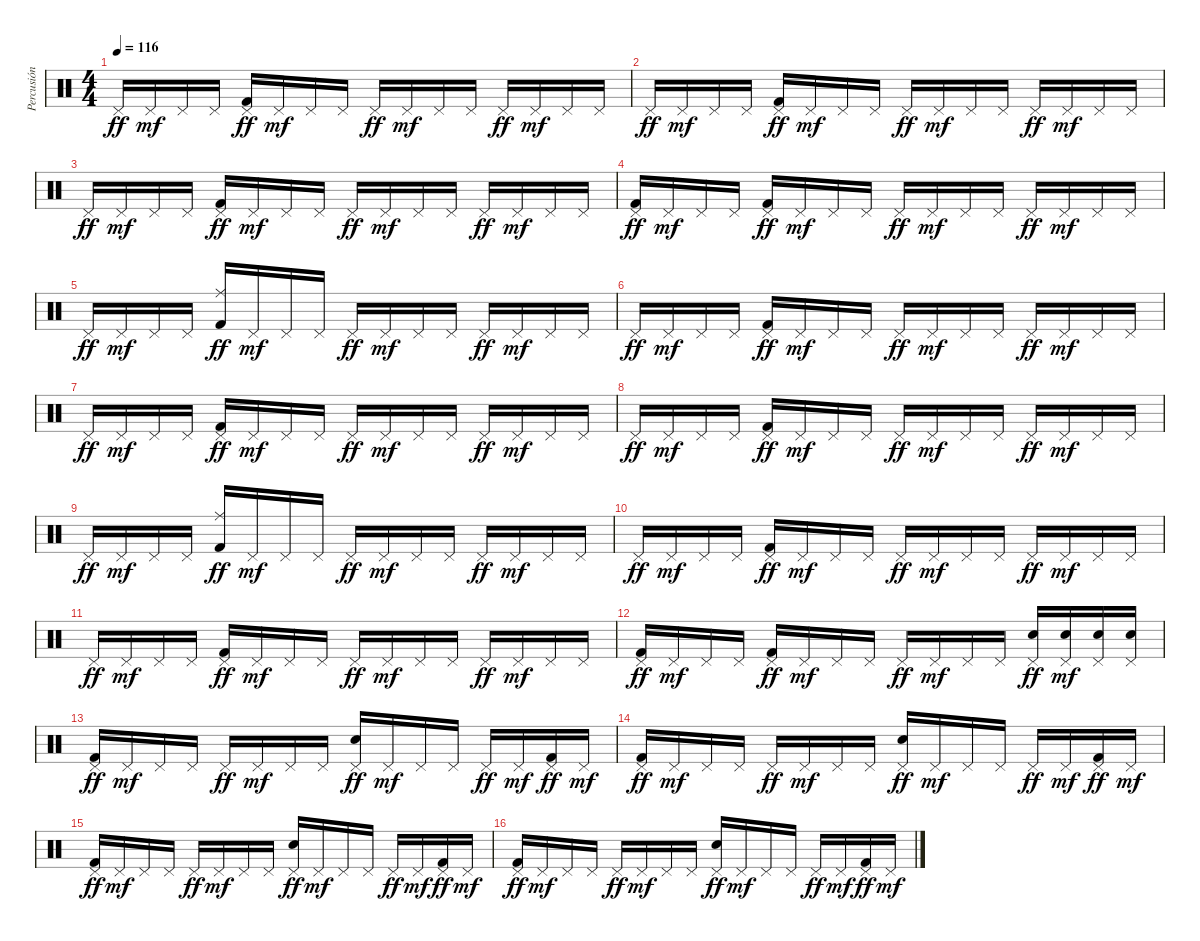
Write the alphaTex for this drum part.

\track ("Percusión" "Percusión") {instrument percussion}
\staff {score}
\articulation defaults
\ts (4 4)
\tempo 116
\clef neutral
\ks c "Pedal Hi-Hat (hit)".16{dy ff} "Pedal Hi-Hat (hit)".16{dy mf} "Pedal Hi-Hat (hit)".16 "Pedal Hi-Hat (hit)".16
("Pedal Hi-Hat (hit)" "Kick (hit) 2").16{dy ff} "Pedal Hi-Hat (hit)".16{dy mf} "Pedal Hi-Hat (hit)".16 "Pedal Hi-Hat (hit)".16 "Pedal Hi-Hat (hit)".16{dy ff} "Pedal Hi-Hat (hit)".16{dy mf} "Pedal Hi-Hat (hit)".16 "Pedal Hi-Hat (hit)".16 "Pedal Hi-Hat (hit)".16{dy ff} "Pedal Hi-Hat (hit)".16{dy mf} "Pedal Hi-Hat (hit)".16 "Pedal Hi-Hat (hit)".16 |
"Pedal Hi-Hat (hit)".16{dy ff} "Pedal Hi-Hat (hit)".16{dy mf} "Pedal Hi-Hat (hit)".16 "Pedal Hi-Hat (hit)".16 ("Pedal Hi-Hat (hit)" "Kick (hit) 2").16{dy ff} "Pedal Hi-Hat (hit)".16{dy mf} "Pedal Hi-Hat (hit)".16 "Pedal Hi-Hat (hit)".16 "Pedal Hi-Hat (hit)".16{dy ff} "Pedal Hi-Hat (hit)".16{dy mf} "Pedal Hi-Hat (hit)".16 "Pedal Hi-Hat (hit)".16 "Pedal Hi-Hat (hit)".16{dy ff} "Pedal Hi-Hat (hit)".16{dy mf} "Pedal Hi-Hat (hit)".16 "Pedal Hi-Hat (hit)".16 |
"Pedal Hi-Hat (hit)".16{dy ff} "Pedal Hi-Hat (hit)".16{dy mf} "Pedal Hi-Hat (hit)".16 "Pedal Hi-Hat (hit)".16 ("Pedal Hi-Hat (hit)" "Kick (hit) 2").16{dy ff} "Pedal Hi-Hat (hit)".16{dy mf} "Pedal Hi-Hat (hit)".16 "Pedal Hi-Hat (hit)".16 "Pedal Hi-Hat (hit)".16{dy ff} "Pedal Hi-Hat (hit)".16{dy mf} "Pedal Hi-Hat (hit)".16 "Pedal Hi-Hat (hit)".16 "Pedal Hi-Hat (hit)".16{dy ff} "Pedal Hi-Hat (hit)".16{dy mf} "Pedal Hi-Hat (hit)".16 "Pedal Hi-Hat (hit)".16 |
("Pedal Hi-Hat (hit)" "Kick (hit) 2").16{dy ff} "Pedal Hi-Hat (hit)".16{dy mf} "Pedal Hi-Hat (hit)".16 "Pedal Hi-Hat (hit)".16 ("Pedal Hi-Hat (hit)" "Kick (hit) 2").16{dy ff} "Pedal Hi-Hat (hit)".16{dy mf} "Pedal Hi-Hat (hit)".16 "Pedal Hi-Hat (hit)".16 "Pedal Hi-Hat (hit)".16{dy ff} "Pedal Hi-Hat (hit)".16{dy mf} "Pedal Hi-Hat (hit)".16 "Pedal Hi-Hat (hit)".16 "Pedal Hi-Hat (hit)".16{dy ff} "Pedal Hi-Hat (hit)".16{dy mf} "Pedal Hi-Hat (hit)".16 "Pedal Hi-Hat (hit)".16 |
"Pedal Hi-Hat (hit)".16{dy ff} "Pedal Hi-Hat (hit)".16{dy mf} "Pedal Hi-Hat (hit)".16 "Pedal Hi-Hat (hit)".16 ("Ride (middle)" "Kick (hit) 2").16{dy ff} "Pedal Hi-Hat (hit)".16{dy mf} "Pedal Hi-Hat (hit)".16 "Pedal Hi-Hat (hit)".16 "Pedal Hi-Hat (hit)".16{dy ff} "Pedal Hi-Hat (hit)".16{dy mf} "Pedal Hi-Hat (hit)".16 "Pedal Hi-Hat (hit)".16 "Pedal Hi-Hat (hit)".16{dy ff} "Pedal Hi-Hat (hit)".16{dy mf} "Pedal Hi-Hat (hit)".16 "Pedal Hi-Hat (hit)".16 |
"Pedal Hi-Hat (hit)".16{dy ff} "Pedal Hi-Hat (hit)".16{dy mf} "Pedal Hi-Hat (hit)".16 "Pedal Hi-Hat (hit)".16 ("Pedal Hi-Hat (hit)" "Kick (hit) 2").16{dy ff} "Pedal Hi-Hat (hit)".16{dy mf} "Pedal Hi-Hat (hit)".16 "Pedal Hi-Hat (hit)".16 "Pedal Hi-Hat (hit)".16{dy ff} "Pedal Hi-Hat (hit)".16{dy mf} "Pedal Hi-Hat (hit)".16 "Pedal Hi-Hat (hit)".16 "Pedal Hi-Hat (hit)".16{dy ff} "Pedal Hi-Hat (hit)".16{dy mf} "Pedal Hi-Hat (hit)".16 "Pedal Hi-Hat (hit)".16 |
"Pedal Hi-Hat (hit)".16{dy ff} "Pedal Hi-Hat (hit)".16{dy mf} "Pedal Hi-Hat (hit)".16 "Pedal Hi-Hat (hit)".16 ("Pedal Hi-Hat (hit)" "Kick (hit) 2").16{dy ff} "Pedal Hi-Hat (hit)".16{dy mf} "Pedal Hi-Hat (hit)".16 "Pedal Hi-Hat (hit)".16 "Pedal Hi-Hat (hit)".16{dy ff} "Pedal Hi-Hat (hit)".16{dy mf} "Pedal Hi-Hat (hit)".16 "Pedal Hi-Hat (hit)".16 "Pedal Hi-Hat (hit)".16{dy ff} "Pedal Hi-Hat (hit)".16{dy mf} "Pedal Hi-Hat (hit)".16 "Pedal Hi-Hat (hit)".16 |
"Pedal Hi-Hat (hit)".16{dy ff} "Pedal Hi-Hat (hit)".16{dy mf} "Pedal Hi-Hat (hit)".16 "Pedal Hi-Hat (hit)".16 ("Pedal Hi-Hat (hit)" "Kick (hit) 2").16{dy ff} "Pedal Hi-Hat (hit)".16{dy mf} "Pedal Hi-Hat (hit)".16 "Pedal Hi-Hat (hit)".16 "Pedal Hi-Hat (hit)".16{dy ff} "Pedal Hi-Hat (hit)".16{dy mf} "Pedal Hi-Hat (hit)".16 "Pedal Hi-Hat (hit)".16 "Pedal Hi-Hat (hit)".16{dy ff} "Pedal Hi-Hat (hit)".16{dy mf} "Pedal Hi-Hat (hit)".16 "Pedal Hi-Hat (hit)".16 |
"Pedal Hi-Hat (hit)".16{dy ff} "Pedal Hi-Hat (hit)".16{dy mf} "Pedal Hi-Hat (hit)".16 "Pedal Hi-Hat (hit)".16 ("Ride (middle)" "Kick (hit) 2").16{dy ff} "Pedal Hi-Hat (hit)".16{dy mf} "Pedal Hi-Hat (hit)".16 "Pedal Hi-Hat (hit)".16 "Pedal Hi-Hat (hit)".16{dy ff} "Pedal Hi-Hat (hit)".16{dy mf} "Pedal Hi-Hat (hit)".16 "Pedal Hi-Hat (hit)".16 "Pedal Hi-Hat (hit)".16{dy ff} "Pedal Hi-Hat (hit)".16{dy mf} "Pedal Hi-Hat (hit)".16 "Pedal Hi-Hat (hit)".16 |
"Pedal Hi-Hat (hit)".16{dy ff} "Pedal Hi-Hat (hit)".16{dy mf} "Pedal Hi-Hat (hit)".16 "Pedal Hi-Hat (hit)".16 ("Pedal Hi-Hat (hit)" "Kick (hit) 2").16{dy ff} "Pedal Hi-Hat (hit)".16{dy mf} "Pedal Hi-Hat (hit)".16 "Pedal Hi-Hat (hit)".16 "Pedal Hi-Hat (hit)".16{dy ff} "Pedal Hi-Hat (hit)".16{dy mf} "Pedal Hi-Hat (hit)".16 "Pedal Hi-Hat (hit)".16 "Pedal Hi-Hat (hit)".16{dy ff} "Pedal Hi-Hat (hit)".16{dy mf} "Pedal Hi-Hat (hit)".16 "Pedal Hi-Hat (hit)".16 |
"Pedal Hi-Hat (hit)".16{dy ff} "Pedal Hi-Hat (hit)".16{dy mf} "Pedal Hi-Hat (hit)".16 "Pedal Hi-Hat (hit)".16 ("Pedal Hi-Hat (hit)" "Kick (hit) 2").16{dy ff} "Pedal Hi-Hat (hit)".16{dy mf} "Pedal Hi-Hat (hit)".16 "Pedal Hi-Hat (hit)".16 "Pedal Hi-Hat (hit)".16{dy ff} "Pedal Hi-Hat (hit)".16{dy mf} "Pedal Hi-Hat (hit)".16 "Pedal Hi-Hat (hit)".16 "Pedal Hi-Hat (hit)".16{dy ff} "Pedal Hi-Hat (hit)".16{dy mf} "Pedal Hi-Hat (hit)".16 "Pedal Hi-Hat (hit)".16 |
("Pedal Hi-Hat (hit)" "Kick (hit) 2").16{dy ff} "Pedal Hi-Hat (hit)".16{dy mf} "Pedal Hi-Hat (hit)".16 "Pedal Hi-Hat (hit)".16 ("Pedal Hi-Hat (hit)" "Kick (hit) 2").16{dy ff} "Pedal Hi-Hat (hit)".16{dy mf} "Pedal Hi-Hat (hit)".16 "Pedal Hi-Hat (hit)".16 "Pedal Hi-Hat (hit)".16{dy ff} "Pedal Hi-Hat (hit)".16{dy mf} "Pedal Hi-Hat (hit)".16 "Pedal Hi-Hat (hit)".16 ("Pedal Hi-Hat (hit)" "Snare (hit) 2").16{dy ff} ("Pedal Hi-Hat (hit)" "Snare (hit) 2").16{dy mf} ("Pedal Hi-Hat (hit)" "Snare (hit) 2").16 ("Pedal Hi-Hat (hit)" "Snare (hit) 2").16 |
("Pedal Hi-Hat (hit)" "Kick (hit) 2").16{dy ff} "Pedal Hi-Hat (hit)".16{dy mf} "Pedal Hi-Hat (hit)".16 "Pedal Hi-Hat (hit)".16 "Pedal Hi-Hat (hit)".16{dy ff} "Pedal Hi-Hat (hit)".16{dy mf} "Pedal Hi-Hat (hit)".16 "Pedal Hi-Hat (hit)".16 ("Pedal Hi-Hat (hit)" "Snare (hit) 2").16{dy ff} "Pedal Hi-Hat (hit)".16{dy mf} "Pedal Hi-Hat (hit)".16 "Pedal Hi-Hat (hit)".16 "Pedal Hi-Hat (hit)".16{dy ff} "Pedal Hi-Hat (hit)".16{dy mf} ("Pedal Hi-Hat (hit)" "Kick (hit) 2").16{dy ff} "Pedal Hi-Hat (hit)".16{dy mf} |
("Pedal Hi-Hat (hit)" "Kick (hit) 2").16{dy ff} "Pedal Hi-Hat (hit)".16{dy mf} "Pedal Hi-Hat (hit)".16 "Pedal Hi-Hat (hit)".16 "Pedal Hi-Hat (hit)".16{dy ff} "Pedal Hi-Hat (hit)".16{dy mf} "Pedal Hi-Hat (hit)".16 "Pedal Hi-Hat (hit)".16 ("Pedal Hi-Hat (hit)" "Snare (hit) 2").16{dy ff} "Pedal Hi-Hat (hit)".16{dy mf} "Pedal Hi-Hat (hit)".16 "Pedal Hi-Hat (hit)".16 "Pedal Hi-Hat (hit)".16{dy ff} "Pedal Hi-Hat (hit)".16{dy mf} ("Pedal Hi-Hat (hit)" "Kick (hit) 2").16{dy ff} "Pedal Hi-Hat (hit)".16{dy mf} |
("Pedal Hi-Hat (hit)" "Kick (hit) 2").16{dy ff} "Pedal Hi-Hat (hit)".16{dy mf} "Pedal Hi-Hat (hit)".16 "Pedal Hi-Hat (hit)".16 "Pedal Hi-Hat (hit)".16{dy ff} "Pedal Hi-Hat (hit)".16{dy mf} "Pedal Hi-Hat (hit)".16 "Pedal Hi-Hat (hit)".16 ("Pedal Hi-Hat (hit)" "Snare (hit) 2").16{dy ff} "Pedal Hi-Hat (hit)".16{dy mf} "Pedal Hi-Hat (hit)".16 "Pedal Hi-Hat (hit)".16 "Pedal Hi-Hat (hit)".16{dy ff} "Pedal Hi-Hat (hit)".16{dy mf} ("Pedal Hi-Hat (hit)" "Kick (hit) 2").16{dy ff} "Pedal Hi-Hat (hit)".16{dy mf} |
("Pedal Hi-Hat (hit)" "Kick (hit) 2").16{dy ff} "Pedal Hi-Hat (hit)".16{dy mf} "Pedal Hi-Hat (hit)".16 "Pedal Hi-Hat (hit)".16 "Pedal Hi-Hat (hit)".16{dy ff} "Pedal Hi-Hat (hit)".16{dy mf} "Pedal Hi-Hat (hit)".16 "Pedal Hi-Hat (hit)".16 ("Pedal Hi-Hat (hit)" "Snare (hit) 2").16{dy ff} "Pedal Hi-Hat (hit)".16{dy mf} "Pedal Hi-Hat (hit)".16 "Pedal Hi-Hat (hit)".16 "Pedal Hi-Hat (hit)".16{dy ff} "Pedal Hi-Hat (hit)".16{dy mf} ("Pedal Hi-Hat (hit)" "Kick (hit) 2").16{dy ff} "Pedal Hi-Hat (hit)".16{dy mf}
